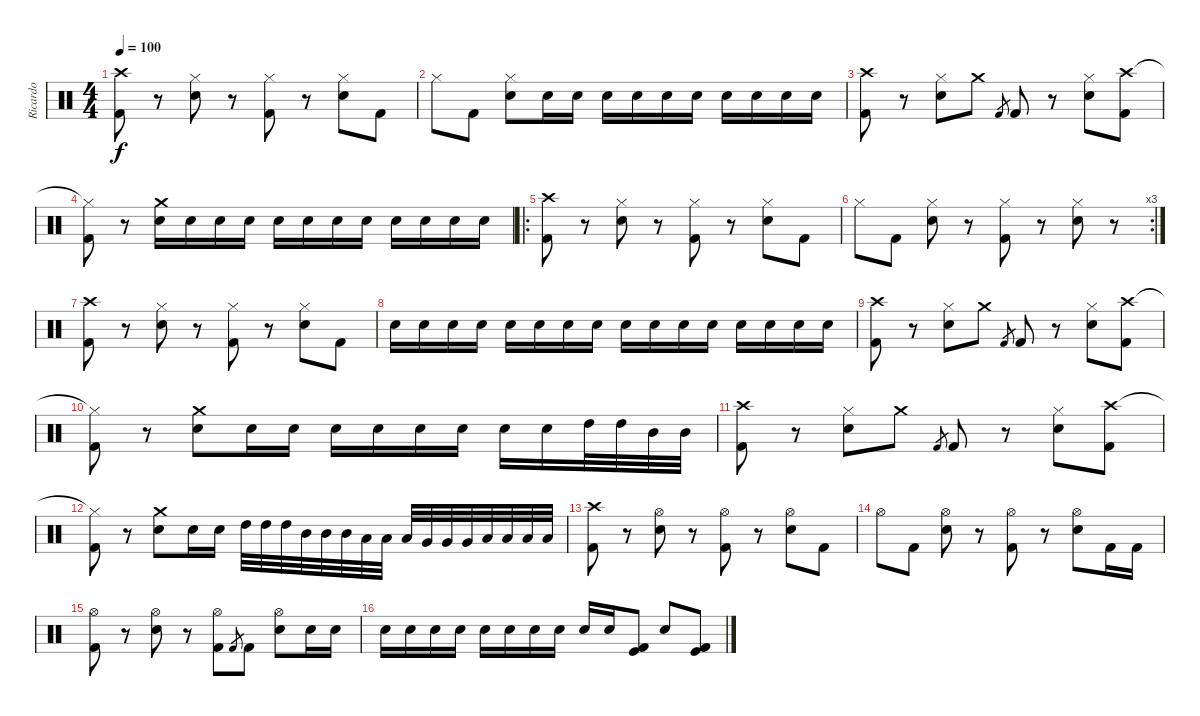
\track ("Ricardo" "Ricardo") {instrument percussion}
\staff {score}
\articulation defaults
\ts (4 4)
\tempo 100
\clef neutral
\ks c
("Crash high (hit)" "Kick (hit) 2").8{dy f} r.8 ("Hi-Hat (closed)" "Snare (hit) 2").8 r.8 ("Hi-Hat (closed)" "Kick (hit) 2").8 r.8 ("Hi-Hat (closed)" "Snare (hit) 2").8 "Kick (hit) 2".8 |
"Hi-Hat (closed)".8 "Kick (hit) 2".8 ("Hi-Hat (closed)" "Snare (hit) 2").8 "Snare (hit) 2".16 "Snare (hit) 2".16 "Snare (hit) 2".16 "Snare (hit) 2".16 "Snare (hit) 2".16 "Snare (hit) 2".16 "Snare (hit) 2".16 "Snare (hit) 2".16 "Snare (hit) 2".16 "Snare (hit) 2".16 |
("Crash high (hit)" "Kick (hit) 2").8 r.8 ("Hi-Hat (closed)" "Snare (hit) 2").8 "Crash medium (hit)".8 "Kick (hit) 2".8{gr} "Kick (hit) 2".8 r.8 ("Hi-Hat (closed)" "Snare (hit) 2").8 ("Crash high (hit)" "Kick (hit) 2").8 |
("Hi-Hat (closed)"{t} "Kick (hit) 2").8 r.8 ("Crash medium (hit)" "Snare (hit) 2").16 "Snare (hit) 2".16 "Snare (hit) 2".16 "Snare (hit) 2".16 "Snare (hit) 2".16 "Snare (hit) 2".16 "Snare (hit) 2".16 "Snare (hit) 2".16 "Snare (hit) 2".16 "Snare (hit) 2".16 "Snare (hit) 2".16 "Snare (hit) 2".16 |
\ro
("Crash high (hit)" "Kick (hit) 2").8 r.8 ("Hi-Hat (closed)" "Snare (hit) 2").8 r.8 ("Hi-Hat (closed)" "Kick (hit) 2").8 r.8 ("Hi-Hat (closed)" "Snare (hit) 2").8 "Kick (hit) 2".8 |
\rc 3 "Hi-Hat (closed)".8 "Kick (hit) 2".8
("Hi-Hat (closed)" "Snare (hit) 2").8 r.8 ("Hi-Hat (closed)" "Kick (hit) 2").8 r.8 ("Hi-Hat (closed)" "Snare (hit) 2").8 r.8 |
("Crash high (hit)" "Kick (hit) 2").8 r.8 ("Hi-Hat (closed)" "Snare (hit) 2").8 r.8 ("Hi-Hat (closed)" "Kick (hit) 2").8 r.8 ("Hi-Hat (closed)" "Snare (hit) 2").8 "Kick (hit) 2".8 |
"Snare (hit) 2".16 "Snare (hit) 2".16 "Snare (hit) 2".16 "Snare (hit) 2".16 "Snare (hit) 2".16 "Snare (hit) 2".16 "Snare (hit) 2".16 "Snare (hit) 2".16 "Snare (hit) 2".16 "Snare (hit) 2".16 "Snare (hit) 2".16 "Snare (hit) 2".16 "Snare (hit) 2".16 "Snare (hit) 2".16 "Snare (hit) 2".16 "Snare (hit) 2".16 |
("Crash high (hit)" "Kick (hit) 2").8 r.8 ("Hi-Hat (closed)" "Snare (hit) 2").8 "Crash medium (hit)".8 "Kick (hit) 2".8{gr} "Kick (hit) 2".8 r.8 ("Hi-Hat (closed)" "Snare (hit) 2").8 ("Crash high (hit)" "Kick (hit) 2").8 |
("Hi-Hat (closed)"{t} "Kick (hit) 2").8 r.8 ("Crash medium (hit)" "Snare (hit) 2").8 "Snare (hit) 2".16 "Snare (hit) 2".16 "Snare (hit) 2".16 "Snare (hit) 2".16 "Snare (hit) 2".16 "Snare (hit) 2".16 "Snare (hit) 2".16 "Snare (hit) 2".16 "High Tom (hit)".32 "High Tom (hit)".32 "Mid Tom (hit)".32 "Mid Tom (hit)".32 |
("Crash high (hit)" "Kick (hit) 2").8 r.8 ("Hi-Hat (closed)" "Snare (hit) 2").8 "Crash medium (hit)".8 "Kick (hit) 2".8{gr} "Kick (hit) 2".8 r.8 ("Hi-Hat (closed)" "Snare (hit) 2").8 ("Crash high (hit)" "Kick (hit) 2").8 |
("Hi-Hat (closed)"{t} "Kick (hit) 2").8 r.8 ("Crash medium (hit)" "Snare (hit) 2").8 "Snare (hit) 2".16 "Snare (hit) 2".16 "High Tom (hit)".32 "High Tom (hit)".32 "High Tom (hit)".32 "Mid Tom (hit)".32 "Mid Tom (hit)".32 "Mid Tom (hit)".32 "Low Tom (hit)".32 "Low Tom (hit)".32 "Low Tom (hit)".32 "Very Low Tom (hit)".32 "Very Low Tom (hit)".32 "Very Low Tom (hit)".32 "Low Floor Tom (hit)".32 "Low Floor Tom (hit)".32 "Low Floor Tom (hit)".32 "Low Floor Tom (hit)".32 |
("Crash high (hit)" "Kick (hit) 2").8 r.8 ("Hi-Hat (open)" "Snare (hit) 2").8 r.8 ("Hi-Hat (open)" "Kick (hit) 2").8 r.8 ("Hi-Hat (open)" "Snare (hit) 2").8 "Kick (hit) 2".8 |
"Hi-Hat (open)".8 "Kick (hit) 2".8 ("Hi-Hat (open)" "Snare (hit) 2").8 r.8 ("Hi-Hat (open)" "Kick (hit) 2").8 r.8 ("Hi-Hat (open)" "Snare (hit) 2").8 "Kick (hit) 2".16 "Kick (hit) 2".16 |
("Hi-Hat (open)" "Kick (hit) 2").8 r.8 ("Hi-Hat (open)" "Snare (hit) 2").8 r.8 ("Hi-Hat (open)" "Kick (hit) 2").8 "Kick (hit) 2".8{gr} "Kick (hit) 2".8 ("Hi-Hat (open)" "Snare (hit) 2").8 "Snare (hit) 2".16 "Snare (hit) 2".16 |
"Snare (hit) 2".16 "Snare (hit) 2".16 "Snare (hit) 2".16 "Snare (hit) 2".16 "Snare (hit) 2".16 "Snare (hit) 2".16 "Snare (hit) 2".16 "Snare (hit) 2".16 "Snare (hit) 2".16 "Snare (hit) 2".16 ("Kick (hit) 2" "Kick (hit)").8 "Snare (hit) 2".8 ("Kick (hit) 2" "Kick (hit)").8
